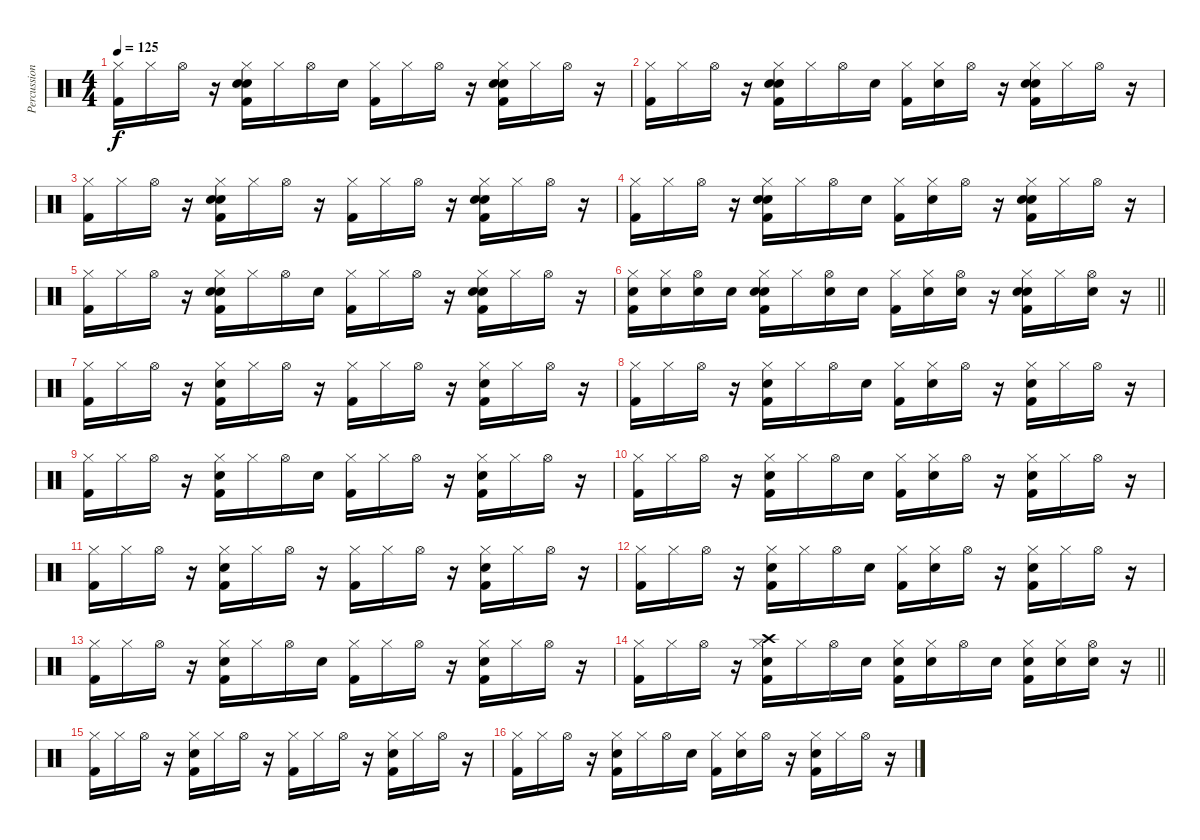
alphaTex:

\track ("Percussion" "Percussion") {instrument percussion}
\staff {score}
\articulation defaults
\ts (4 4)
\tempo 125
\clef neutral
\ks c
("Hi-Hat (closed)" "Kick (hit) 2").16{dy f} "Hi-Hat (closed)".16 "Hi-Hat (open)".16 r.16 ("Hi-Hat (closed)" "Hand Clap (hit)" "Electric Snare (hit)" "Kick (hit) 2").16 "Hi-Hat (closed)".16 "Hi-Hat (open)".16 "Electric Snare (hit)".16 ("Hi-Hat (closed)" "Kick (hit) 2").16 "Hi-Hat (closed)".16 "Hi-Hat (open)".16 r.16 ("Hi-Hat (closed)" "Hand Clap (hit)" "Electric Snare (hit)" "Kick (hit) 2").16 "Hi-Hat (closed)".16 "Hi-Hat (open)".16 r.16 |
("Hi-Hat (closed)" "Kick (hit) 2").16 "Hi-Hat (closed)".16 "Hi-Hat (open)".16 r.16 ("Hi-Hat (closed)" "Hand Clap (hit)" "Electric Snare (hit)" "Kick (hit) 2").16 "Hi-Hat (closed)".16 "Hi-Hat (open)".16 "Electric Snare (hit)".16 ("Hi-Hat (closed)" "Kick (hit) 2").16 ("Hi-Hat (closed)" "Electric Snare (hit)").16 "Hi-Hat (open)".16 r.16 ("Hi-Hat (closed)" "Hand Clap (hit)" "Electric Snare (hit)" "Kick (hit) 2").16 "Hi-Hat (closed)".16 "Hi-Hat (open)".16 r.16 |
("Hi-Hat (closed)" "Kick (hit) 2").16 "Hi-Hat (closed)".16 "Hi-Hat (open)".16 r.16 ("Hi-Hat (closed)" "Hand Clap (hit)" "Electric Snare (hit)" "Kick (hit) 2").16 "Hi-Hat (closed)".16 "Hi-Hat (open)".16 r.16 ("Hi-Hat (closed)" "Kick (hit) 2").16 "Hi-Hat (closed)".16 "Hi-Hat (open)".16 r.16 ("Hi-Hat (closed)" "Hand Clap (hit)" "Electric Snare (hit)" "Kick (hit) 2").16 "Hi-Hat (closed)".16 "Hi-Hat (open)".16 r.16 |
("Hi-Hat (closed)" "Kick (hit) 2").16 "Hi-Hat (closed)".16 "Hi-Hat (open)".16 r.16 ("Hi-Hat (closed)" "Hand Clap (hit)" "Electric Snare (hit)" "Kick (hit) 2").16 "Hi-Hat (closed)".16 "Hi-Hat (open)".16 "Electric Snare (hit)".16 ("Hi-Hat (closed)" "Kick (hit) 2").16 ("Hi-Hat (closed)" "Electric Snare (hit)").16 "Hi-Hat (open)".16 r.16 ("Hi-Hat (closed)" "Hand Clap (hit)" "Electric Snare (hit)" "Kick (hit) 2").16 "Hi-Hat (closed)".16 "Hi-Hat (open)".16 r.16 |
("Hi-Hat (closed)" "Kick (hit) 2").16 "Hi-Hat (closed)".16 "Hi-Hat (open)".16 r.16 ("Hi-Hat (closed)" "Hand Clap (hit)" "Electric Snare (hit)" "Kick (hit) 2").16 "Hi-Hat (closed)".16 "Hi-Hat (open)".16 "Electric Snare (hit)".16 ("Hi-Hat (closed)" "Kick (hit) 2").16 "Hi-Hat (closed)".16 "Hi-Hat (open)".16 r.16 ("Hi-Hat (closed)" "Hand Clap (hit)" "Electric Snare (hit)" "Kick (hit) 2").16 "Hi-Hat (closed)".16 "Hi-Hat (open)".16 r.16 |
\barLineRight lightlight
("Hi-Hat (closed)" "Electric Snare (hit)" "Kick (hit) 2").16 ("Hi-Hat (closed)" "Electric Snare (hit)").16 ("Hi-Hat (open)" "Electric Snare (hit)").16 "Electric Snare (hit)".16 ("Hi-Hat (closed)" "Hand Clap (hit)" "Electric Snare (hit)" "Kick (hit) 2").16 "Hi-Hat (closed)".16 ("Hi-Hat (open)" "Electric Snare (hit)").16 "Electric Snare (hit)".16 ("Hi-Hat (closed)" "Kick (hit) 2").16 ("Hi-Hat (closed)" "Electric Snare (hit)").16 ("Hi-Hat (open)" "Electric Snare (hit)").16 r.16 ("Hi-Hat (closed)" "Hand Clap (hit)" "Electric Snare (hit)" "Kick (hit) 2").16 "Hi-Hat (closed)".16 ("Hi-Hat (open)" "Electric Snare (hit)").16 r.16 |
("Hi-Hat (closed)" "Kick (hit) 2").16 "Hi-Hat (closed)".16 "Hi-Hat (open)".16 r.16 ("Hi-Hat (closed)" "Electric Snare (hit)" "Kick (hit) 2").16 "Hi-Hat (closed)".16 "Hi-Hat (open)".16 r.16 ("Hi-Hat (closed)" "Kick (hit) 2").16 "Hi-Hat (closed)".16 "Hi-Hat (open)".16 r.16 ("Hi-Hat (closed)" "Electric Snare (hit)" "Kick (hit) 2").16 "Hi-Hat (closed)".16 "Hi-Hat (open)".16 r.16 |
("Hi-Hat (closed)" "Kick (hit) 2").16 "Hi-Hat (closed)".16 "Hi-Hat (open)".16 r.16 ("Hi-Hat (closed)" "Electric Snare (hit)" "Kick (hit) 2").16 "Hi-Hat (closed)".16 "Hi-Hat (open)".16 "Electric Snare (hit)".16 ("Hi-Hat (closed)" "Kick (hit) 2").16 ("Hi-Hat (closed)" "Electric Snare (hit)").16 "Hi-Hat (open)".16 r.16 ("Hi-Hat (closed)" "Electric Snare (hit)" "Kick (hit) 2").16 "Hi-Hat (closed)".16 "Hi-Hat (open)".16 r.16 |
("Hi-Hat (closed)" "Kick (hit) 2").16 "Hi-Hat (closed)".16 "Hi-Hat (open)".16 r.16 ("Hi-Hat (closed)" "Electric Snare (hit)" "Kick (hit) 2").16 "Hi-Hat (closed)".16 "Hi-Hat (open)".16 "Electric Snare (hit)".16 ("Hi-Hat (closed)" "Kick (hit) 2").16 "Hi-Hat (closed)".16 "Hi-Hat (open)".16 r.16 ("Hi-Hat (closed)" "Electric Snare (hit)" "Kick (hit) 2").16 "Hi-Hat (closed)".16 "Hi-Hat (open)".16 r.16 |
("Hi-Hat (closed)" "Kick (hit) 2").16 "Hi-Hat (closed)".16 "Hi-Hat (open)".16 r.16 ("Hi-Hat (closed)" "Electric Snare (hit)" "Kick (hit) 2").16 "Hi-Hat (closed)".16 "Hi-Hat (open)".16 "Electric Snare (hit)".16 ("Hi-Hat (closed)" "Kick (hit) 2").16 ("Hi-Hat (closed)" "Electric Snare (hit)").16 "Hi-Hat (open)".16 r.16 ("Hi-Hat (closed)" "Electric Snare (hit)" "Kick (hit) 2").16 "Hi-Hat (closed)".16 "Hi-Hat (open)".16 r.16 |
("Hi-Hat (closed)" "Kick (hit) 2").16 "Hi-Hat (closed)".16 "Hi-Hat (open)".16 r.16 ("Hi-Hat (closed)" "Electric Snare (hit)" "Kick (hit) 2").16 "Hi-Hat (closed)".16 "Hi-Hat (open)".16 r.16 ("Hi-Hat (closed)" "Kick (hit) 2").16 "Hi-Hat (closed)".16 "Hi-Hat (open)".16 r.16 ("Hi-Hat (closed)" "Electric Snare (hit)" "Kick (hit) 2").16 "Hi-Hat (closed)".16 "Hi-Hat (open)".16 r.16 |
("Hi-Hat (closed)" "Kick (hit) 2").16 "Hi-Hat (closed)".16 "Hi-Hat (open)".16 r.16 ("Hi-Hat (closed)" "Electric Snare (hit)" "Kick (hit) 2").16 "Hi-Hat (closed)".16 "Hi-Hat (open)".16 "Electric Snare (hit)".16 ("Hi-Hat (closed)" "Kick (hit) 2").16 ("Hi-Hat (closed)" "Electric Snare (hit)").16 "Hi-Hat (open)".16 r.16 ("Hi-Hat (closed)" "Electric Snare (hit)" "Kick (hit) 2").16 "Hi-Hat (closed)".16 "Hi-Hat (open)".16 r.16 |
("Hi-Hat (closed)" "Kick (hit) 2").16 "Hi-Hat (closed)".16 "Hi-Hat (open)".16 r.16 ("Hi-Hat (closed)" "Electric Snare (hit)" "Kick (hit) 2").16 "Hi-Hat (closed)".16 "Hi-Hat (open)".16 "Electric Snare (hit)".16 ("Hi-Hat (closed)" "Kick (hit) 2").16 "Hi-Hat (closed)".16 "Hi-Hat (open)".16 r.16 ("Hi-Hat (closed)" "Electric Snare (hit)" "Kick (hit) 2").16 "Hi-Hat (closed)".16 "Hi-Hat (open)".16 r.16 |
\barLineRight lightlight
("Hi-Hat (closed)" "Kick (hit) 2").16 "Hi-Hat (closed)".16 "Hi-Hat (open)".16 r.16 ("Hi-Hat (closed)" "Crash high (hit)" "Electric Snare (hit)" "Kick (hit) 2").16 "Hi-Hat (closed)".16 "Hi-Hat (open)".16 "Electric Snare (hit)".16 ("Hi-Hat (closed)" "Electric Snare (hit)" "Kick (hit) 2").16 ("Hi-Hat (closed)" "Electric Snare (hit)").16 "Hi-Hat (open)".16 "Electric Snare (hit)".16 ("Hi-Hat (closed)" "Electric Snare (hit)" "Kick (hit) 2").16 ("Hi-Hat (closed)" "Electric Snare (hit)").16 ("Hi-Hat (open)" "Electric Snare (hit)").16 r.16 |
("Hi-Hat (closed)" "Kick (hit) 2").16 "Hi-Hat (closed)".16 "Hi-Hat (open)".16 r.16 ("Hi-Hat (closed)" "Electric Snare (hit)" "Kick (hit) 2").16 "Hi-Hat (closed)".16 "Hi-Hat (open)".16 r.16 ("Hi-Hat (closed)" "Kick (hit) 2").16 "Hi-Hat (closed)".16 "Hi-Hat (open)".16 r.16 ("Hi-Hat (closed)" "Electric Snare (hit)" "Kick (hit) 2").16 "Hi-Hat (closed)".16 "Hi-Hat (open)".16 r.16 |
("Hi-Hat (closed)" "Kick (hit) 2").16 "Hi-Hat (closed)".16 "Hi-Hat (open)".16 r.16 ("Hi-Hat (closed)" "Electric Snare (hit)" "Kick (hit) 2").16 "Hi-Hat (closed)".16 "Hi-Hat (open)".16 "Electric Snare (hit)".16 ("Hi-Hat (closed)" "Kick (hit) 2").16 ("Hi-Hat (closed)" "Electric Snare (hit)").16 "Hi-Hat (open)".16 r.16 ("Hi-Hat (closed)" "Electric Snare (hit)" "Kick (hit) 2").16 "Hi-Hat (closed)".16 "Hi-Hat (open)".16 r.16
